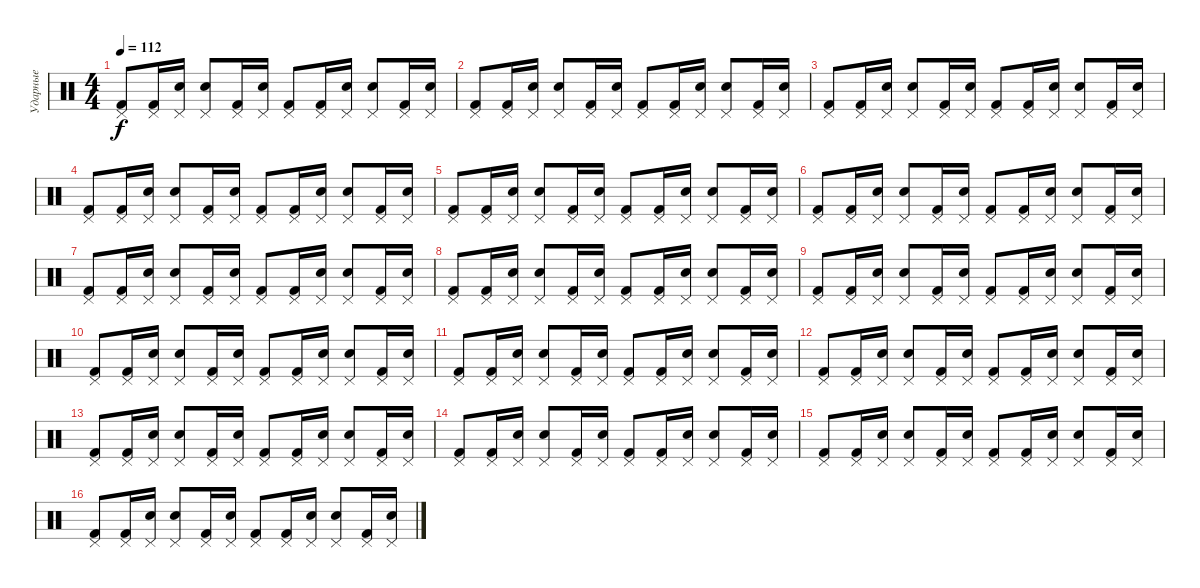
\track ("Ударные" "Ударные") {instrument percussion}
\staff {score}
\articulation defaults
\ts (4 4)
\tempo 112
\clef neutral
\ks c
("Kick (hit) 2" "Pedal Hi-Hat (hit)").8{dy f} ("Kick (hit) 2" "Pedal Hi-Hat (hit)").16 ("Snare (hit) 2" "Pedal Hi-Hat (hit)").16 ("Snare (hit) 2" "Pedal Hi-Hat (hit)").8 ("Kick (hit) 2" "Pedal Hi-Hat (hit)").16 ("Snare (hit) 2" "Pedal Hi-Hat (hit)").16 ("Kick (hit) 2" "Pedal Hi-Hat (hit)").8 ("Kick (hit) 2" "Pedal Hi-Hat (hit)").16 ("Snare (hit) 2" "Pedal Hi-Hat (hit)").16 ("Snare (hit) 2" "Pedal Hi-Hat (hit)").8 ("Kick (hit) 2" "Pedal Hi-Hat (hit)").16 ("Snare (hit) 2" "Pedal Hi-Hat (hit)").16 |
("Kick (hit) 2" "Pedal Hi-Hat (hit)").8 ("Kick (hit) 2" "Pedal Hi-Hat (hit)").16 ("Snare (hit) 2" "Pedal Hi-Hat (hit)").16 ("Snare (hit) 2" "Pedal Hi-Hat (hit)").8 ("Kick (hit) 2" "Pedal Hi-Hat (hit)").16 ("Snare (hit) 2" "Pedal Hi-Hat (hit)").16 ("Kick (hit) 2" "Pedal Hi-Hat (hit)").8 ("Kick (hit) 2" "Pedal Hi-Hat (hit)").16 ("Snare (hit) 2" "Pedal Hi-Hat (hit)").16 ("Snare (hit) 2" "Pedal Hi-Hat (hit)").8 ("Kick (hit) 2" "Pedal Hi-Hat (hit)").16 ("Snare (hit) 2" "Pedal Hi-Hat (hit)").16 |
("Kick (hit) 2" "Pedal Hi-Hat (hit)").8 ("Kick (hit) 2" "Pedal Hi-Hat (hit)").16 ("Snare (hit) 2" "Pedal Hi-Hat (hit)").16 ("Snare (hit) 2" "Pedal Hi-Hat (hit)").8 ("Kick (hit) 2" "Pedal Hi-Hat (hit)").16 ("Snare (hit) 2" "Pedal Hi-Hat (hit)").16 ("Kick (hit) 2" "Pedal Hi-Hat (hit)").8 ("Kick (hit) 2" "Pedal Hi-Hat (hit)").16 ("Snare (hit) 2" "Pedal Hi-Hat (hit)").16 ("Snare (hit) 2" "Pedal Hi-Hat (hit)").8 ("Kick (hit) 2" "Pedal Hi-Hat (hit)").16 ("Snare (hit) 2" "Pedal Hi-Hat (hit)").16 |
("Kick (hit) 2" "Pedal Hi-Hat (hit)").8 ("Kick (hit) 2" "Pedal Hi-Hat (hit)").16 ("Snare (hit) 2" "Pedal Hi-Hat (hit)").16 ("Snare (hit) 2" "Pedal Hi-Hat (hit)").8 ("Kick (hit) 2" "Pedal Hi-Hat (hit)").16 ("Snare (hit) 2" "Pedal Hi-Hat (hit)").16 ("Kick (hit) 2" "Pedal Hi-Hat (hit)").8 ("Kick (hit) 2" "Pedal Hi-Hat (hit)").16 ("Snare (hit) 2" "Pedal Hi-Hat (hit)").16 ("Snare (hit) 2" "Pedal Hi-Hat (hit)").8 ("Kick (hit) 2" "Pedal Hi-Hat (hit)").16 ("Snare (hit) 2" "Pedal Hi-Hat (hit)").16 |
("Kick (hit) 2" "Pedal Hi-Hat (hit)").8 ("Kick (hit) 2" "Pedal Hi-Hat (hit)").16 ("Snare (hit) 2" "Pedal Hi-Hat (hit)").16 ("Snare (hit) 2" "Pedal Hi-Hat (hit)").8 ("Kick (hit) 2" "Pedal Hi-Hat (hit)").16 ("Snare (hit) 2" "Pedal Hi-Hat (hit)").16 ("Kick (hit) 2" "Pedal Hi-Hat (hit)").8 ("Kick (hit) 2" "Pedal Hi-Hat (hit)").16 ("Snare (hit) 2" "Pedal Hi-Hat (hit)").16 ("Snare (hit) 2" "Pedal Hi-Hat (hit)").8 ("Kick (hit) 2" "Pedal Hi-Hat (hit)").16 ("Snare (hit) 2" "Pedal Hi-Hat (hit)").16 |
("Kick (hit) 2" "Pedal Hi-Hat (hit)").8 ("Kick (hit) 2" "Pedal Hi-Hat (hit)").16 ("Snare (hit) 2" "Pedal Hi-Hat (hit)").16 ("Snare (hit) 2" "Pedal Hi-Hat (hit)").8 ("Kick (hit) 2" "Pedal Hi-Hat (hit)").16 ("Snare (hit) 2" "Pedal Hi-Hat (hit)").16 ("Kick (hit) 2" "Pedal Hi-Hat (hit)").8 ("Kick (hit) 2" "Pedal Hi-Hat (hit)").16 ("Snare (hit) 2" "Pedal Hi-Hat (hit)").16 ("Snare (hit) 2" "Pedal Hi-Hat (hit)").8 ("Kick (hit) 2" "Pedal Hi-Hat (hit)").16 ("Snare (hit) 2" "Pedal Hi-Hat (hit)").16 |
("Kick (hit) 2" "Pedal Hi-Hat (hit)").8 ("Kick (hit) 2" "Pedal Hi-Hat (hit)").16 ("Snare (hit) 2" "Pedal Hi-Hat (hit)").16 ("Snare (hit) 2" "Pedal Hi-Hat (hit)").8 ("Kick (hit) 2" "Pedal Hi-Hat (hit)").16 ("Snare (hit) 2" "Pedal Hi-Hat (hit)").16 ("Kick (hit) 2" "Pedal Hi-Hat (hit)").8 ("Kick (hit) 2" "Pedal Hi-Hat (hit)").16 ("Snare (hit) 2" "Pedal Hi-Hat (hit)").16 ("Snare (hit) 2" "Pedal Hi-Hat (hit)").8 ("Kick (hit) 2" "Pedal Hi-Hat (hit)").16 ("Snare (hit) 2" "Pedal Hi-Hat (hit)").16 |
("Kick (hit) 2" "Pedal Hi-Hat (hit)").8 ("Kick (hit) 2" "Pedal Hi-Hat (hit)").16 ("Snare (hit) 2" "Pedal Hi-Hat (hit)").16 ("Snare (hit) 2" "Pedal Hi-Hat (hit)").8 ("Kick (hit) 2" "Pedal Hi-Hat (hit)").16 ("Snare (hit) 2" "Pedal Hi-Hat (hit)").16 ("Kick (hit) 2" "Pedal Hi-Hat (hit)").8 ("Kick (hit) 2" "Pedal Hi-Hat (hit)").16 ("Snare (hit) 2" "Pedal Hi-Hat (hit)").16 ("Snare (hit) 2" "Pedal Hi-Hat (hit)").8 ("Kick (hit) 2" "Pedal Hi-Hat (hit)").16 ("Snare (hit) 2" "Pedal Hi-Hat (hit)").16 |
("Kick (hit) 2" "Pedal Hi-Hat (hit)").8 ("Kick (hit) 2" "Pedal Hi-Hat (hit)").16 ("Snare (hit) 2" "Pedal Hi-Hat (hit)").16 ("Snare (hit) 2" "Pedal Hi-Hat (hit)").8 ("Kick (hit) 2" "Pedal Hi-Hat (hit)").16 ("Snare (hit) 2" "Pedal Hi-Hat (hit)").16 ("Kick (hit) 2" "Pedal Hi-Hat (hit)").8 ("Kick (hit) 2" "Pedal Hi-Hat (hit)").16 ("Snare (hit) 2" "Pedal Hi-Hat (hit)").16 ("Snare (hit) 2" "Pedal Hi-Hat (hit)").8 ("Kick (hit) 2" "Pedal Hi-Hat (hit)").16 ("Snare (hit) 2" "Pedal Hi-Hat (hit)").16 |
("Kick (hit) 2" "Pedal Hi-Hat (hit)").8 ("Kick (hit) 2" "Pedal Hi-Hat (hit)").16 ("Snare (hit) 2" "Pedal Hi-Hat (hit)").16 ("Snare (hit) 2" "Pedal Hi-Hat (hit)").8 ("Kick (hit) 2" "Pedal Hi-Hat (hit)").16 ("Snare (hit) 2" "Pedal Hi-Hat (hit)").16 ("Kick (hit) 2" "Pedal Hi-Hat (hit)").8 ("Kick (hit) 2" "Pedal Hi-Hat (hit)").16 ("Snare (hit) 2" "Pedal Hi-Hat (hit)").16 ("Snare (hit) 2" "Pedal Hi-Hat (hit)").8 ("Kick (hit) 2" "Pedal Hi-Hat (hit)").16 ("Snare (hit) 2" "Pedal Hi-Hat (hit)").16 |
("Kick (hit) 2" "Pedal Hi-Hat (hit)").8 ("Kick (hit) 2" "Pedal Hi-Hat (hit)").16 ("Snare (hit) 2" "Pedal Hi-Hat (hit)").16 ("Snare (hit) 2" "Pedal Hi-Hat (hit)").8 ("Kick (hit) 2" "Pedal Hi-Hat (hit)").16 ("Snare (hit) 2" "Pedal Hi-Hat (hit)").16 ("Kick (hit) 2" "Pedal Hi-Hat (hit)").8 ("Kick (hit) 2" "Pedal Hi-Hat (hit)").16 ("Snare (hit) 2" "Pedal Hi-Hat (hit)").16 ("Snare (hit) 2" "Pedal Hi-Hat (hit)").8 ("Kick (hit) 2" "Pedal Hi-Hat (hit)").16 ("Snare (hit) 2" "Pedal Hi-Hat (hit)").16 |
("Kick (hit) 2" "Pedal Hi-Hat (hit)").8 ("Kick (hit) 2" "Pedal Hi-Hat (hit)").16 ("Snare (hit) 2" "Pedal Hi-Hat (hit)").16 ("Snare (hit) 2" "Pedal Hi-Hat (hit)").8 ("Kick (hit) 2" "Pedal Hi-Hat (hit)").16 ("Snare (hit) 2" "Pedal Hi-Hat (hit)").16 ("Kick (hit) 2" "Pedal Hi-Hat (hit)").8 ("Kick (hit) 2" "Pedal Hi-Hat (hit)").16 ("Snare (hit) 2" "Pedal Hi-Hat (hit)").16 ("Snare (hit) 2" "Pedal Hi-Hat (hit)").8 ("Kick (hit) 2" "Pedal Hi-Hat (hit)").16 ("Snare (hit) 2" "Pedal Hi-Hat (hit)").16 |
("Kick (hit) 2" "Pedal Hi-Hat (hit)").8 ("Kick (hit) 2" "Pedal Hi-Hat (hit)").16 ("Snare (hit) 2" "Pedal Hi-Hat (hit)").16 ("Snare (hit) 2" "Pedal Hi-Hat (hit)").8 ("Kick (hit) 2" "Pedal Hi-Hat (hit)").16 ("Snare (hit) 2" "Pedal Hi-Hat (hit)").16 ("Kick (hit) 2" "Pedal Hi-Hat (hit)").8 ("Kick (hit) 2" "Pedal Hi-Hat (hit)").16 ("Snare (hit) 2" "Pedal Hi-Hat (hit)").16 ("Snare (hit) 2" "Pedal Hi-Hat (hit)").8 ("Kick (hit) 2" "Pedal Hi-Hat (hit)").16 ("Snare (hit) 2" "Pedal Hi-Hat (hit)").16 |
("Kick (hit) 2" "Pedal Hi-Hat (hit)").8 ("Kick (hit) 2" "Pedal Hi-Hat (hit)").16 ("Snare (hit) 2" "Pedal Hi-Hat (hit)").16 ("Snare (hit) 2" "Pedal Hi-Hat (hit)").8 ("Kick (hit) 2" "Pedal Hi-Hat (hit)").16 ("Snare (hit) 2" "Pedal Hi-Hat (hit)").16 ("Kick (hit) 2" "Pedal Hi-Hat (hit)").8 ("Kick (hit) 2" "Pedal Hi-Hat (hit)").16 ("Snare (hit) 2" "Pedal Hi-Hat (hit)").16 ("Snare (hit) 2" "Pedal Hi-Hat (hit)").8 ("Kick (hit) 2" "Pedal Hi-Hat (hit)").16 ("Snare (hit) 2" "Pedal Hi-Hat (hit)").16 |
("Kick (hit) 2" "Pedal Hi-Hat (hit)").8 ("Kick (hit) 2" "Pedal Hi-Hat (hit)").16 ("Snare (hit) 2" "Pedal Hi-Hat (hit)").16 ("Snare (hit) 2" "Pedal Hi-Hat (hit)").8 ("Kick (hit) 2" "Pedal Hi-Hat (hit)").16 ("Snare (hit) 2" "Pedal Hi-Hat (hit)").16 ("Kick (hit) 2" "Pedal Hi-Hat (hit)").8 ("Kick (hit) 2" "Pedal Hi-Hat (hit)").16 ("Snare (hit) 2" "Pedal Hi-Hat (hit)").16 ("Snare (hit) 2" "Pedal Hi-Hat (hit)").8 ("Kick (hit) 2" "Pedal Hi-Hat (hit)").16 ("Snare (hit) 2" "Pedal Hi-Hat (hit)").16 |
("Kick (hit) 2" "Pedal Hi-Hat (hit)").8 ("Kick (hit) 2" "Pedal Hi-Hat (hit)").16 ("Snare (hit) 2" "Pedal Hi-Hat (hit)").16 ("Snare (hit) 2" "Pedal Hi-Hat (hit)").8 ("Kick (hit) 2" "Pedal Hi-Hat (hit)").16 ("Snare (hit) 2" "Pedal Hi-Hat (hit)").16 ("Kick (hit) 2" "Pedal Hi-Hat (hit)").8 ("Kick (hit) 2" "Pedal Hi-Hat (hit)").16 ("Snare (hit) 2" "Pedal Hi-Hat (hit)").16 ("Snare (hit) 2" "Pedal Hi-Hat (hit)").8 ("Kick (hit) 2" "Pedal Hi-Hat (hit)").16 ("Snare (hit) 2" "Pedal Hi-Hat (hit)").16
